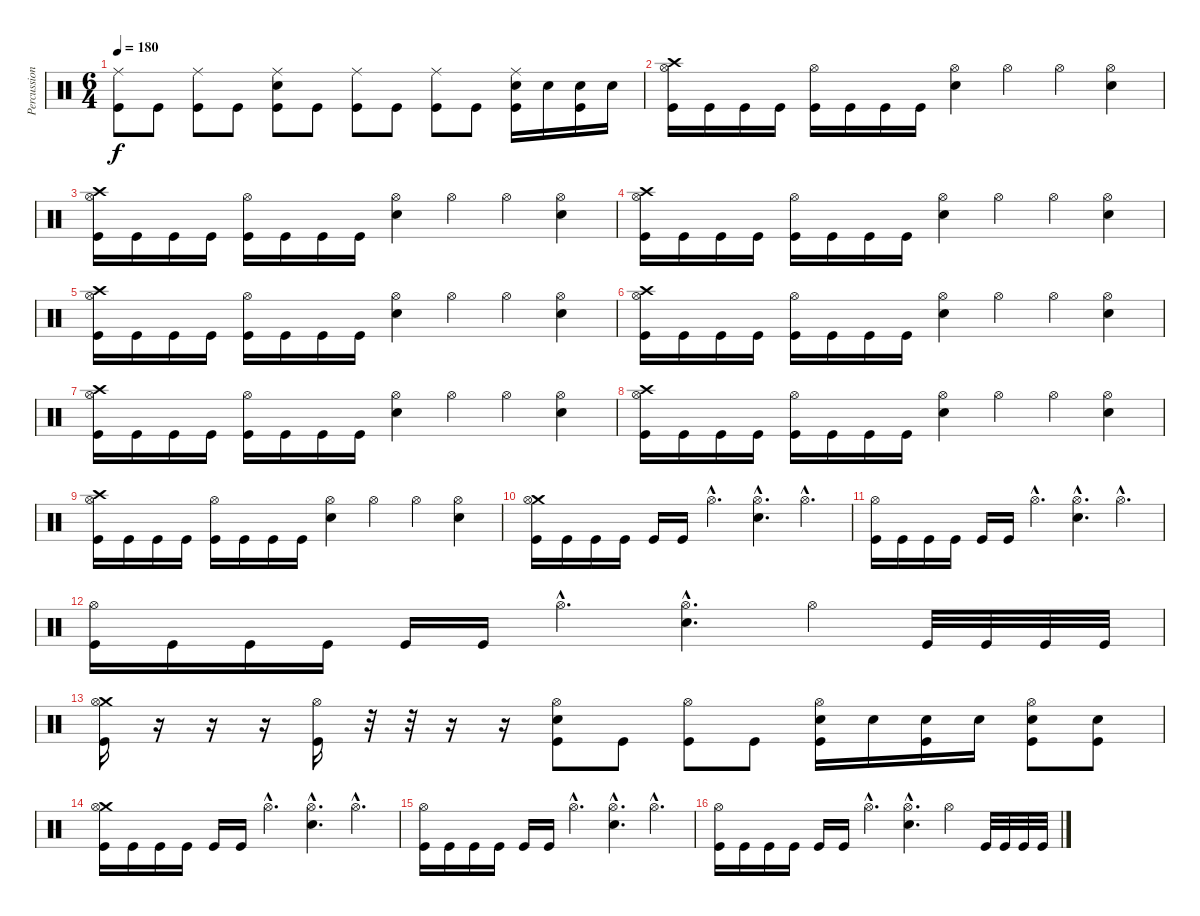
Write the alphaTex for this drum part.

\track ("Percussion" "Percussion") {instrument percussion}
\staff {score}
\articulation defaults
\ts (6 4)
\tempo 180
\clef neutral
\ks c
("Ride (middle)" "Kick (hit)").8{dy f} "Kick (hit)".8 ("Ride (middle)" "Kick (hit)").8 "Kick (hit)".8 ("Electric Snare (hit)" "Ride (middle)" "Kick (hit)").8 "Kick (hit)".8 ("Ride (middle)" "Kick (hit)").8 "Kick (hit)".8 ("Ride (middle)" "Kick (hit)").8 "Kick (hit)".8 ("Electric Snare (hit)" "Ride (middle)" "Kick (hit)").16 "Electric Snare (hit)".16 ("Electric Snare (hit)" "Kick (hit)").16 "Electric Snare (hit)".16 |
("Crash high (hit)" "Hi-Hat (open)" "Kick (hit)").16 "Kick (hit)".16 "Kick (hit)".16 "Kick (hit)".16 ("Hi-Hat (open)" "Kick (hit)").16 "Kick (hit)".16 "Kick (hit)".16 "Kick (hit)".16 ("Electric Snare (hit)" "Hi-Hat (open)").4 "Hi-Hat (open)".4 "Hi-Hat (open)".4 ("Electric Snare (hit)" "Hi-Hat (open)").4 |
("Crash high (hit)" "Hi-Hat (open)" "Kick (hit)").16 "Kick (hit)".16 "Kick (hit)".16 "Kick (hit)".16 ("Hi-Hat (open)" "Kick (hit)").16 "Kick (hit)".16 "Kick (hit)".16 "Kick (hit)".16 ("Electric Snare (hit)" "Hi-Hat (open)").4 "Hi-Hat (open)".4 "Hi-Hat (open)".4 ("Electric Snare (hit)" "Hi-Hat (open)").4 |
("Crash high (hit)" "Hi-Hat (open)" "Kick (hit)").16 "Kick (hit)".16 "Kick (hit)".16 "Kick (hit)".16 ("Hi-Hat (open)" "Kick (hit)").16 "Kick (hit)".16 "Kick (hit)".16 "Kick (hit)".16 ("Electric Snare (hit)" "Hi-Hat (open)").4 "Hi-Hat (open)".4 "Hi-Hat (open)".4 ("Electric Snare (hit)" "Hi-Hat (open)").4 |
("Crash high (hit)" "Hi-Hat (open)" "Kick (hit)").16 "Kick (hit)".16 "Kick (hit)".16 "Kick (hit)".16 ("Hi-Hat (open)" "Kick (hit)").16 "Kick (hit)".16 "Kick (hit)".16 "Kick (hit)".16 ("Electric Snare (hit)" "Hi-Hat (open)").4 "Hi-Hat (open)".4 "Hi-Hat (open)".4 ("Electric Snare (hit)" "Hi-Hat (open)").4 |
("Crash high (hit)" "Hi-Hat (open)" "Kick (hit)").16 "Kick (hit)".16 "Kick (hit)".16 "Kick (hit)".16 ("Hi-Hat (open)" "Kick (hit)").16 "Kick (hit)".16 "Kick (hit)".16 "Kick (hit)".16 ("Electric Snare (hit)" "Hi-Hat (open)").4 "Hi-Hat (open)".4 "Hi-Hat (open)".4 ("Electric Snare (hit)" "Hi-Hat (open)").4 |
("Crash high (hit)" "Hi-Hat (open)" "Kick (hit)").16 "Kick (hit)".16 "Kick (hit)".16 "Kick (hit)".16 ("Hi-Hat (open)" "Kick (hit)").16 "Kick (hit)".16 "Kick (hit)".16 "Kick (hit)".16 ("Electric Snare (hit)" "Hi-Hat (open)").4 "Hi-Hat (open)".4 "Hi-Hat (open)".4 ("Electric Snare (hit)" "Hi-Hat (open)").4 |
("Crash high (hit)" "Hi-Hat (open)" "Kick (hit)").16 "Kick (hit)".16 "Kick (hit)".16 "Kick (hit)".16 ("Hi-Hat (open)" "Kick (hit)").16 "Kick (hit)".16 "Kick (hit)".16 "Kick (hit)".16 ("Electric Snare (hit)" "Hi-Hat (open)").4 "Hi-Hat (open)".4 "Hi-Hat (open)".4 ("Electric Snare (hit)" "Hi-Hat (open)").4 |
("Crash high (hit)" "Hi-Hat (open)" "Kick (hit)").16 "Kick (hit)".16 "Kick (hit)".16 "Kick (hit)".16 ("Hi-Hat (open)" "Kick (hit)").16 "Kick (hit)".16 "Kick (hit)".16 "Kick (hit)".16 ("Electric Snare (hit)" "Hi-Hat (open)").4 "Hi-Hat (open)".4 "Hi-Hat (open)".4 ("Electric Snare (hit)" "Hi-Hat (open)").4 |
("Crash medium (hit)" "Hi-Hat (open)" "Kick (hit)").16 "Kick (hit)".16 "Kick (hit)".16 "Kick (hit)".16 "Kick (hit)".16 "Kick (hit)".16 "Hi-Hat (open)"{hac}.4{d} ("Electric Snare (hit)"{hac} "Hi-Hat (open)"{hac}).4{d} "Hi-Hat (open)"{hac}.4{d} |
("Hi-Hat (open)" "Kick (hit)").16 "Kick (hit)".16 "Kick (hit)".16 "Kick (hit)".16 "Kick (hit)".16 "Kick (hit)".16 "Hi-Hat (open)"{hac}.4{d} ("Electric Snare (hit)"{hac} "Hi-Hat (open)"{hac}).4{d} "Hi-Hat (open)"{hac}.4{d} |
("Hi-Hat (open)" "Kick (hit)").16 "Kick (hit)".16 "Kick (hit)".16 "Kick (hit)".16 "Kick (hit)".16 "Kick (hit)".16 "Hi-Hat (open)"{hac}.4{d} ("Electric Snare (hit)"{hac} "Hi-Hat (open)"{hac}).4{d} "Hi-Hat (open)".4 "Kick (hit)".32 "Kick (hit)".32 "Kick (hit)".32 "Kick (hit)".32 |
("Crash medium (hit)" "Hi-Hat (open)" "Kick (hit)").16 r.16 r.16 r.16 ("Hi-Hat (open)" "Kick (hit)").16 r.32 r.32 r.16 r.16 ("Electric Snare (hit)" "Hi-Hat (open)" "Kick (hit)").8 "Kick (hit)".8 ("Hi-Hat (open)" "Kick (hit)").8 "Kick (hit)".8 ("Electric Snare (hit)" "Hi-Hat (open)" "Kick (hit)").16 "Electric Snare (hit)".16 ("Electric Snare (hit)" "Kick (hit)").16 "Electric Snare (hit)".16 ("Electric Snare (hit)" "Hi-Hat (open)" "Kick (hit)").8 ("Electric Snare (hit)" "Kick (hit)").8 |
("Crash medium (hit)" "Hi-Hat (open)" "Kick (hit)").16 "Kick (hit)".16 "Kick (hit)".16 "Kick (hit)".16 "Kick (hit)".16 "Kick (hit)".16 "Hi-Hat (open)"{hac}.4{d} ("Electric Snare (hit)"{hac} "Hi-Hat (open)"{hac}).4{d} "Hi-Hat (open)"{hac}.4{d} |
("Hi-Hat (open)" "Kick (hit)").16 "Kick (hit)".16 "Kick (hit)".16 "Kick (hit)".16 "Kick (hit)".16 "Kick (hit)".16 "Hi-Hat (open)"{hac}.4{d} ("Electric Snare (hit)"{hac} "Hi-Hat (open)"{hac}).4{d} "Hi-Hat (open)"{hac}.4{d} |
("Hi-Hat (open)" "Kick (hit)").16 "Kick (hit)".16 "Kick (hit)".16 "Kick (hit)".16 "Kick (hit)".16 "Kick (hit)".16 "Hi-Hat (open)"{hac}.4{d} ("Electric Snare (hit)"{hac} "Hi-Hat (open)"{hac}).4{d} "Hi-Hat (open)".4 "Kick (hit)".32 "Kick (hit)".32 "Kick (hit)".32 "Kick (hit)".32
